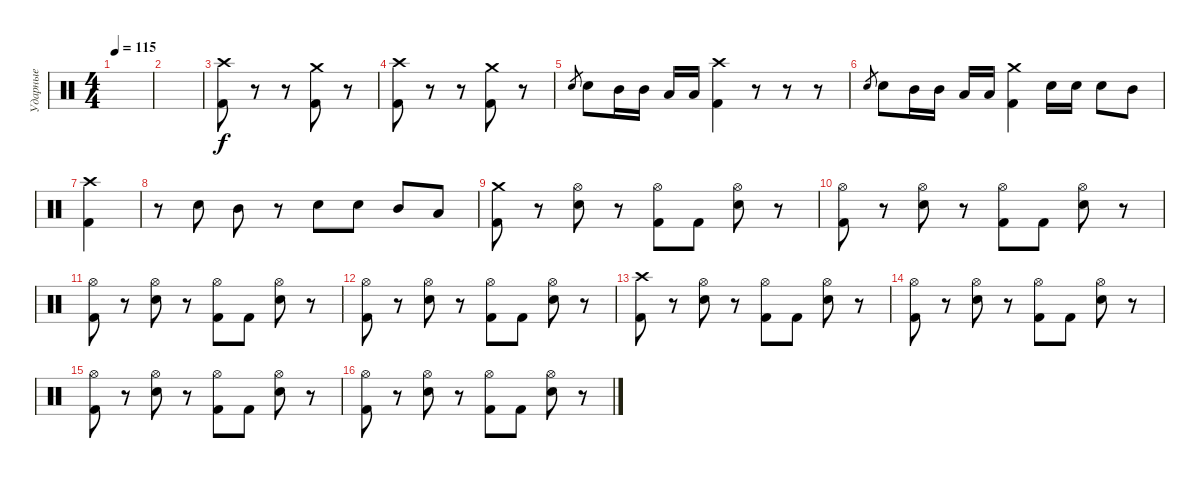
\track ("Ударные" "Ударные") {instrument percussion}
\staff {score}
\articulation defaults
\ts (4 4)
\tempo 115
\clef neutral
\ks c
|
|
("Crash high (hit)" "Kick (hit) 2").8 r.8 r.8 ("Crash medium (hit)" "Kick (hit) 2").8 r.8 |
("Crash high (hit)" "Kick (hit) 2").8 r.8 r.8 ("Crash medium (hit)" "Kick (hit) 2").8 r.8 |
"Electric Snare (hit)".8{gr} "Electric Snare (hit)".8 "Mid Tom (hit)".16 "Mid Tom (hit)".16 "Low Tom (hit)".16 "Low Tom (hit)".16 ("Crash high (hit)" "Kick (hit) 2").4 r.8 r.8 r.8 |
"Electric Snare (hit)".8{gr} "Electric Snare (hit)".8 "Mid Tom (hit)".16 "Mid Tom (hit)".16 "Low Tom (hit)".16 "Low Tom (hit)".16 ("Crash medium (hit)" "Kick (hit) 2").4 "Electric Snare (hit)".16 "Electric Snare (hit)".16 "Electric Snare (hit)".8 "Mid Tom (hit)".8 |
("Crash high (hit)" "Kick (hit) 2").4 |
r.8 "Electric Snare (hit)".8 "Mid Tom (hit)".8 r.8 "Electric Snare (hit)".8 "Electric Snare (hit)".8 "Mid Tom (hit)".8 "Low Tom (hit)".8 |
("Crash medium (hit)" "Kick (hit) 2").8 r.8 ("Hi-Hat (open)" "Electric Snare (hit)").8 r.8 ("Hi-Hat (open)" "Kick (hit) 2").8 "Kick (hit) 2".8 ("Hi-Hat (open)" "Electric Snare (hit)").8 r.8 |
("Hi-Hat (open)" "Kick (hit) 2").8 r.8 ("Hi-Hat (open)" "Electric Snare (hit)").8 r.8 ("Hi-Hat (open)" "Kick (hit) 2").8 "Kick (hit) 2".8 ("Hi-Hat (open)" "Electric Snare (hit)").8 r.8 |
("Hi-Hat (open)" "Kick (hit) 2").8 r.8 ("Hi-Hat (open)" "Electric Snare (hit)").8 r.8 ("Hi-Hat (open)" "Kick (hit) 2").8 "Kick (hit) 2".8 ("Hi-Hat (open)" "Electric Snare (hit)").8 r.8 |
("Hi-Hat (open)" "Kick (hit) 2").8 r.8 ("Hi-Hat (open)" "Electric Snare (hit)").8 r.8 ("Hi-Hat (open)" "Kick (hit) 2").8 "Kick (hit) 2".8 ("Hi-Hat (open)" "Electric Snare (hit)").8 r.8 |
("Crash high (hit)" "Kick (hit) 2").8 r.8 ("Hi-Hat (open)" "Electric Snare (hit)").8 r.8 ("Hi-Hat (open)" "Kick (hit) 2").8 "Kick (hit) 2".8 ("Hi-Hat (open)" "Electric Snare (hit)").8 r.8 |
("Hi-Hat (open)" "Kick (hit) 2").8 r.8 ("Hi-Hat (open)" "Electric Snare (hit)").8 r.8 ("Hi-Hat (open)" "Kick (hit) 2").8 "Kick (hit) 2".8 ("Hi-Hat (open)" "Electric Snare (hit)").8 r.8 |
("Hi-Hat (open)" "Kick (hit) 2").8 r.8 ("Hi-Hat (open)" "Electric Snare (hit)").8 r.8 ("Hi-Hat (open)" "Kick (hit) 2").8 "Kick (hit) 2".8 ("Hi-Hat (open)" "Electric Snare (hit)").8 r.8 |
("Hi-Hat (open)" "Kick (hit) 2").8 r.8 ("Hi-Hat (open)" "Electric Snare (hit)").8 r.8 ("Hi-Hat (open)" "Kick (hit) 2").8 "Kick (hit) 2".8 ("Hi-Hat (open)" "Electric Snare (hit)").8 r.8
